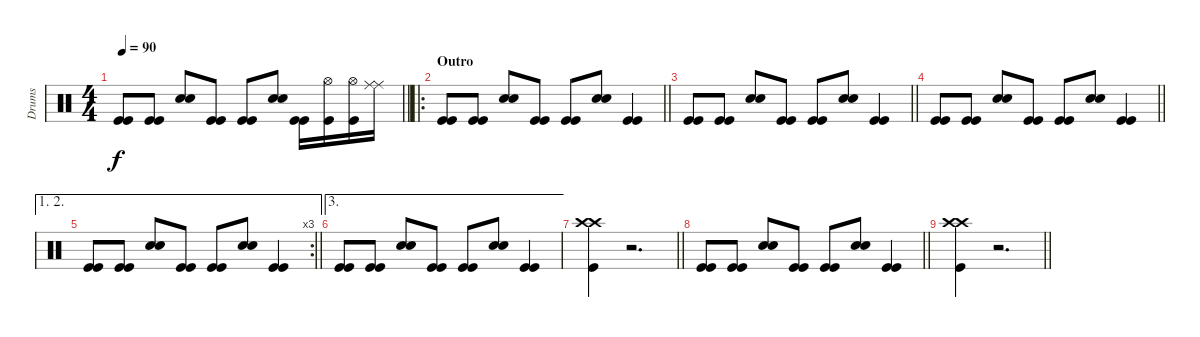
\track ("Drums" "Drums") {instrument percussion}
\staff {score}
\articulation defaults
\ts (4 4)
\tempo 90
\clef neutral
\barLineRight lightlight
\ks c
("Kick (hit)" "Kick (hit)").8{dy f} ("Kick (hit)" "Kick (hit)").8 ("Electric Snare (hit)" "Electric Snare (hit)").8 ("Kick (hit)" "Kick (hit)").8 ("Kick (hit)" "Kick (hit)").8 ("Electric Snare (hit)" "Electric Snare (hit)").8 ("Kick (hit)" "Kick (hit)").16 ("Hi-Hat (open)" "Kick (hit)").16 ("Hi-Hat (open)" "Kick (hit)").16 ("Ride (middle)" "Ride (middle)").16 |
\ro
\section ("" "Outro")
\barLineRight lightlight
("Kick (hit)" "Kick (hit)").8 ("Kick (hit)" "Kick (hit)").8 ("Electric Snare (hit)" "Electric Snare (hit)").8 ("Kick (hit)" "Kick (hit)").8 ("Kick (hit)" "Kick (hit)").8 ("Electric Snare (hit)" "Electric Snare (hit)").8 ("Kick (hit)" "Kick (hit)").4 |
\barLineRight lightlight
("Kick (hit)" "Kick (hit)").8 ("Kick (hit)" "Kick (hit)").8 ("Electric Snare (hit)" "Electric Snare (hit)").8 ("Kick (hit)" "Kick (hit)").8 ("Kick (hit)" "Kick (hit)").8 ("Electric Snare (hit)" "Electric Snare (hit)").8 ("Kick (hit)" "Kick (hit)").4 |
\barLineRight lightlight
("Kick (hit)" "Kick (hit)").8 ("Kick (hit)" "Kick (hit)").8 ("Electric Snare (hit)" "Electric Snare (hit)").8 ("Kick (hit)" "Kick (hit)").8 ("Kick (hit)" "Kick (hit)").8 ("Electric Snare (hit)" "Electric Snare (hit)").8 ("Kick (hit)" "Kick (hit)").4 |
\ae (1 2)
\rc 3
\barLineRight lightlight
("Kick (hit)" "Kick (hit)").8 ("Kick (hit)" "Kick (hit)").8 ("Electric Snare (hit)" "Electric Snare (hit)").8 ("Kick (hit)" "Kick (hit)").8 ("Kick (hit)" "Kick (hit)").8 ("Electric Snare (hit)" "Electric Snare (hit)").8 ("Kick (hit)" "Kick (hit)").4 |
\ae 3
("Kick (hit)" "Kick (hit)").8 ("Kick (hit)" "Kick (hit)").8 ("Electric Snare (hit)" "Electric Snare (hit)").8 ("Kick (hit)" "Kick (hit)").8 ("Kick (hit)" "Kick (hit)").8 ("Electric Snare (hit)" "Electric Snare (hit)").8 ("Kick (hit)" "Kick (hit)").4 |
\barLineRight lightlight
("Crash high (hit)" "Crash high (hit)" "Kick (hit)").4{volume 0} r.2{d} |
\barLineRight lightlight
("Kick (hit)" "Kick (hit)").8 ("Kick (hit)" "Kick (hit)").8 ("Electric Snare (hit)" "Electric Snare (hit)").8 ("Kick (hit)" "Kick (hit)").8 ("Kick (hit)" "Kick (hit)").8 ("Electric Snare (hit)" "Electric Snare (hit)").8 ("Kick (hit)" "Kick (hit)").4 |
\barLineRight lightlight
("Crash high (hit)" "Crash high (hit)" "Kick (hit)").4 r.2{d}
